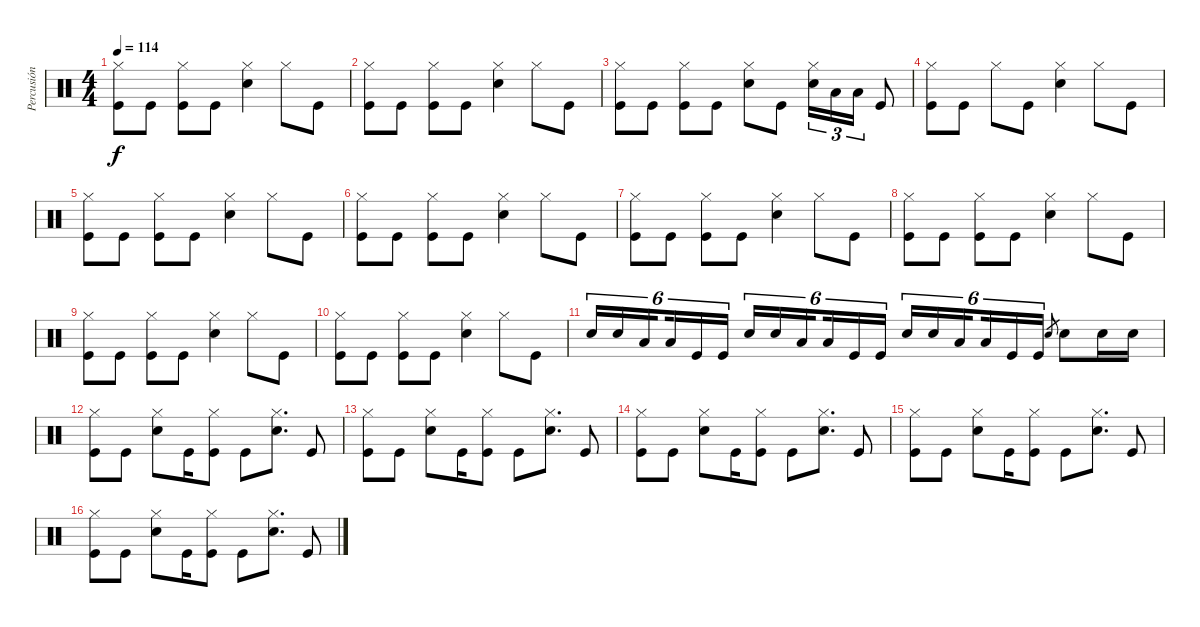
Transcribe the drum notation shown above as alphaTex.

\track ("Percusión" "Percusión") {instrument percussion}
\staff {score}
\articulation defaults
\ts (4 4)
\tempo 114
\clef neutral
\ks c
("Hi-Hat (closed)" "Kick (hit)").8{dy f} "Kick (hit)".8 ("Hi-Hat (closed)" "Kick (hit)").8 "Kick (hit)".8 ("Hi-Hat (closed)" "Snare (hit) 2").4 "Hi-Hat (closed)".8 "Kick (hit)".8 |
("Hi-Hat (closed)" "Kick (hit)").8 "Kick (hit)".8 ("Hi-Hat (closed)" "Kick (hit)").8 "Kick (hit)".8 ("Hi-Hat (closed)" "Snare (hit) 2").4 "Hi-Hat (closed)".8 "Kick (hit)".8 |
("Hi-Hat (closed)" "Kick (hit)").8 "Kick (hit)".8 ("Hi-Hat (closed)" "Kick (hit)").8 "Kick (hit)".8 ("Hi-Hat (closed)" "Snare (hit) 2").8 "Kick (hit)".8 ("Hi-Hat (closed)" "Snare (hit) 2").16{tu (3 2)} "Low Tom (hit)".16{tu (3 2)} "Low Tom (hit)".16{tu (3 2)} "Kick (hit)".8 |
("Hi-Hat (closed)" "Kick (hit)").8 "Kick (hit)".8 "Hi-Hat (closed)".8 "Kick (hit)".8 ("Hi-Hat (closed)" "Snare (hit) 2").4 "Hi-Hat (closed)".8 "Kick (hit)".8 |
("Hi-Hat (closed)" "Kick (hit)").8 "Kick (hit)".8 ("Hi-Hat (closed)" "Kick (hit)").8 "Kick (hit)".8 ("Hi-Hat (closed)" "Snare (hit) 2").4 "Hi-Hat (closed)".8 "Kick (hit)".8 |
("Hi-Hat (closed)" "Kick (hit)").8 "Kick (hit)".8 ("Hi-Hat (closed)" "Kick (hit)").8 "Kick (hit)".8 ("Hi-Hat (closed)" "Snare (hit) 2").4 "Hi-Hat (closed)".8 "Kick (hit)".8 |
("Hi-Hat (closed)" "Kick (hit)").8 "Kick (hit)".8 ("Hi-Hat (closed)" "Kick (hit)").8 "Kick (hit)".8 ("Hi-Hat (closed)" "Snare (hit) 2").4 "Hi-Hat (closed)".8 "Kick (hit)".8 |
("Hi-Hat (closed)" "Kick (hit)").8 "Kick (hit)".8 ("Hi-Hat (closed)" "Kick (hit)").8 "Kick (hit)".8 ("Hi-Hat (closed)" "Snare (hit) 2").4 "Hi-Hat (closed)".8 "Kick (hit)".8 |
("Hi-Hat (closed)" "Kick (hit)").8 "Kick (hit)".8 ("Hi-Hat (closed)" "Kick (hit)").8 "Kick (hit)".8 ("Hi-Hat (closed)" "Snare (hit) 2").4 "Hi-Hat (closed)".8 "Kick (hit)".8 |
("Hi-Hat (closed)" "Kick (hit)").8 "Kick (hit)".8 ("Hi-Hat (closed)" "Kick (hit)").8 "Kick (hit)".8 ("Hi-Hat (closed)" "Snare (hit) 2").4 "Hi-Hat (closed)".8 "Kick (hit)".8 |
"Snare (hit) 2".16{tu (6 4)} "Snare (hit) 2".16{tu (6 4)} "Low Tom (hit)".16{tu (6 4) beam splitsecondary} "Low Tom (hit)".16{tu (6 4)} "Kick (hit)".16{tu (6 4)} "Kick (hit)".16{tu (6 4)} "Snare (hit) 2".16{tu (6 4)} "Snare (hit) 2".16{tu (6 4)} "Low Tom (hit)".16{tu (6 4) beam splitsecondary} "Low Tom (hit)".16{tu (6 4)} "Kick (hit)".16{tu (6 4)} "Kick (hit)".16{tu (6 4)} "Snare (hit) 2".16{tu (6 4)} "Snare (hit) 2".16{tu (6 4)} "Low Tom (hit)".16{tu (6 4) beam splitsecondary} "Low Tom (hit)".16{tu (6 4)} "Kick (hit)".16{tu (6 4)} "Kick (hit)".16{tu (6 4)} "Snare (hit) 2".8{gr} "Snare (hit) 2".8 "Snare (hit) 2".16 "Snare (hit) 2".16 |
("Hi-Hat (closed)" "Kick (hit)").8 "Kick (hit)".8 ("Hi-Hat (closed)" "Snare (hit) 2").8 "Kick (hit)".16 ("Hi-Hat (closed)" "Kick (hit)").8 "Kick (hit)".8 ("Hi-Hat (closed)" "Snare (hit) 2").8{d} "Kick (hit)".8 |
("Hi-Hat (closed)" "Kick (hit)").8 "Kick (hit)".8 ("Hi-Hat (closed)" "Snare (hit) 2").8 "Kick (hit)".16 ("Hi-Hat (closed)" "Kick (hit)").8 "Kick (hit)".8 ("Hi-Hat (closed)" "Snare (hit) 2").8{d} "Kick (hit)".8 |
("Hi-Hat (closed)" "Kick (hit)").8 "Kick (hit)".8 ("Hi-Hat (closed)" "Snare (hit) 2").8 "Kick (hit)".16 ("Hi-Hat (closed)" "Kick (hit)").8 "Kick (hit)".8 ("Hi-Hat (closed)" "Snare (hit) 2").8{d} "Kick (hit)".8 |
("Hi-Hat (closed)" "Kick (hit)").8 "Kick (hit)".8 ("Hi-Hat (closed)" "Snare (hit) 2").8 "Kick (hit)".16 ("Hi-Hat (closed)" "Kick (hit)").8 "Kick (hit)".8 ("Hi-Hat (closed)" "Snare (hit) 2").8{d} "Kick (hit)".8 |
("Hi-Hat (closed)" "Kick (hit)").8 "Kick (hit)".8 ("Hi-Hat (closed)" "Snare (hit) 2").8 "Kick (hit)".16 ("Hi-Hat (closed)" "Kick (hit)").8 "Kick (hit)".8 ("Hi-Hat (closed)" "Snare (hit) 2").8{d} "Kick (hit)".8
